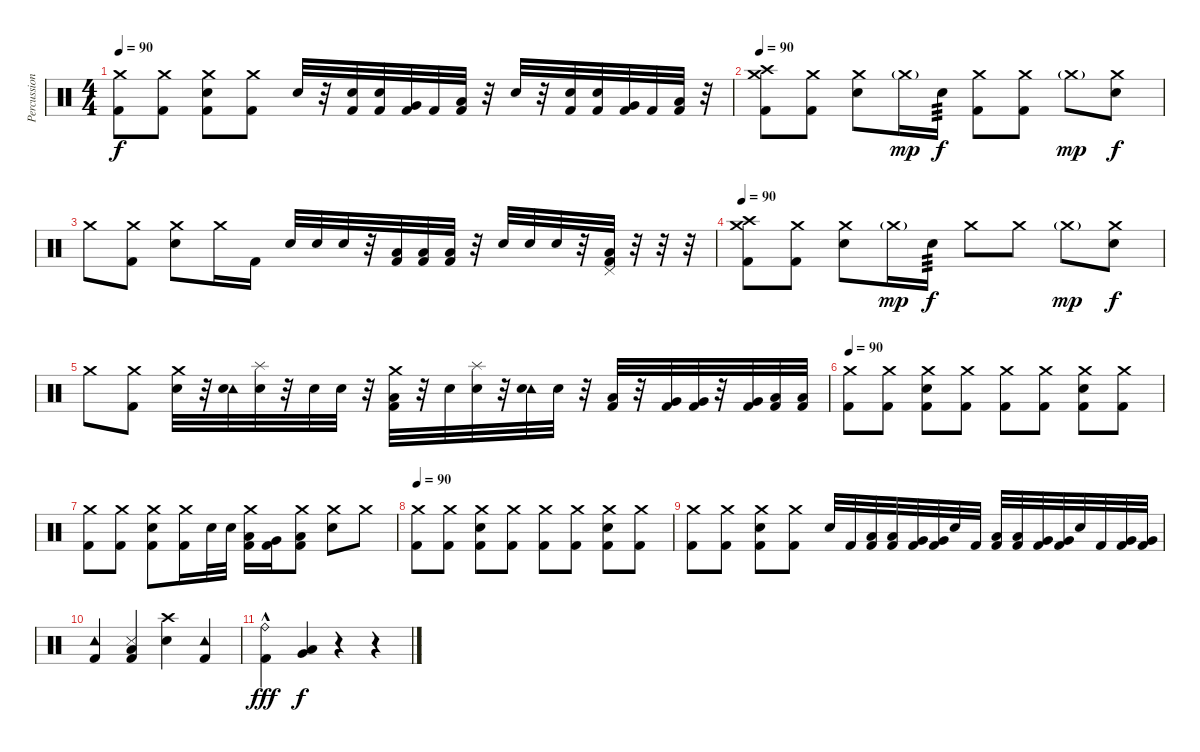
\track ("Percussions" "Percussion") {instrument percussion}
\staff {score}
\articulation defaults
\ts (4 4)
\tempo 90
\clef neutral
\ks c
("Crash medium (hit)" "Kick (hit) 2").8{dy f} ("Crash medium (hit)" "Kick (hit) 2").8 ("Crash medium (hit)" "Electric Snare (hit)" "Kick (hit) 2").8 ("Crash medium (hit)" "Kick (hit) 2").8 "Electric Snare (hit)".32 r.32 ("Electric Snare (hit)" "Kick (hit) 2").32 ("Electric Snare (hit)" "Kick (hit) 2").32 ("Very Low Tom (hit)" "Kick (hit) 2").32 "Kick (hit) 2".32 ("Low Floor Tom (hit)" "Kick (hit) 2").32 r.32 "Electric Snare (hit)".32 r.32 ("Electric Snare (hit)" "Kick (hit) 2").32 ("Electric Snare (hit)" "Kick (hit) 2").32 ("Very Low Tom (hit)" "Kick (hit) 2").32 "Kick (hit) 2".32 ("Low Floor Tom (hit)" "Kick (hit) 2").32 r.32 |
\tempo 90
("Crash medium (hit)" "Crash high (hit)" "Kick (hit) 2").8 ("Crash medium (hit)" "Kick (hit) 2").8 ("Crash medium (hit)" "Electric Snare (hit)").8 "Crash medium (hit)"{g}.16{dy mp} "Electric Snare (hit)".16{tp 3 dy f} ("Crash medium (hit)" "Kick (hit) 2").8 ("Crash medium (hit)" "Kick (hit) 2").8 "Crash medium (hit)"{g}.8{dy mp} ("Crash medium (hit)" "Electric Snare (hit)").8{dy f} |
"Crash medium (hit)".8 ("Crash medium (hit)" "Kick (hit) 2").8 ("Crash medium (hit)" "Electric Snare (hit)").8 "Crash medium (hit)".16 "Kick (hit) 2".16 "Electric Snare (hit)".32 "Electric Snare (hit)".32 "Electric Snare (hit)".32 r.32 ("Low Floor Tom (hit)" "Kick (hit) 2").32 ("Low Floor Tom (hit)" "Kick (hit) 2").32 ("Low Floor Tom (hit)" "Kick (hit) 2").32 r.32 "Electric Snare (hit)".32 "Electric Snare (hit)".32 "Electric Snare (hit)".32 r.32 ("Pedal Hi-Hat (hit)" "Low Floor Tom (hit)" "Kick (hit) 2").32 r.32 r.32 r.32 |
\tempo 90
("Crash medium (hit)" "Crash high (hit)" "Kick (hit) 2").8 ("Crash medium (hit)" "Kick (hit) 2").8 ("Crash medium (hit)" "Electric Snare (hit)").8 "Crash medium (hit)"{g}.16{dy mp} "Electric Snare (hit)".16{tp 3 dy f} "Crash medium (hit)".8 "Crash medium (hit)".8 "Crash medium (hit)"{g}.8{dy mp} ("Crash medium (hit)" "Electric Snare (hit)").8{dy f} |
"Crash medium (hit)".8 ("Crash medium (hit)" "Kick (hit) 2").8 ("Crash medium (hit)" "Electric Snare (hit)").32 r.32 ("Tambourine (hit)" "Electric Snare (hit)").32 ("Splash (hit)" "Electric Snare (hit)").32 r.32 "Electric Snare (hit)".32 "Electric Snare (hit)".32 r.32 ("Crash medium (hit)" "Low Floor Tom (hit)" "Kick (hit) 2").32 r.32 "Electric Snare (hit)".32 ("Splash (hit)" "Electric Snare (hit)").32 r.32 ("Tambourine (hit)" "Electric Snare (hit)").32 "Electric Snare (hit)".32 r.32 ("Low Tom (hit)" "Kick (hit) 2").32 r.32 ("Very Low Tom (hit)" "Kick (hit) 2").32 ("Very Low Tom (hit)" "Kick (hit) 2").32 r.32 ("Very Low Tom (hit)" "Kick (hit) 2").32 ("Low Floor Tom (hit)" "Kick (hit) 2").32 ("Low Floor Tom (hit)" "Kick (hit) 2").32 |
\tempo 90
("Crash medium (hit)" "Kick (hit) 2").8 ("Crash medium (hit)" "Kick (hit) 2").8 ("Crash medium (hit)" "Electric Snare (hit)" "Kick (hit) 2").8 ("Crash medium (hit)" "Kick (hit) 2").8 ("Crash medium (hit)" "Kick (hit) 2").8 ("Crash medium (hit)" "Kick (hit) 2").8 ("Crash medium (hit)" "Electric Snare (hit)" "Kick (hit) 2").8 ("Crash medium (hit)" "Kick (hit) 2").8 |
("Crash medium (hit)" "Kick (hit) 2").8 ("Crash medium (hit)" "Kick (hit) 2").8 ("Crash medium (hit)" "Electric Snare (hit)" "Kick (hit) 2").8 ("Crash medium (hit)" "Kick (hit) 2").16 "Electric Snare (hit)".32 "Electric Snare (hit)".32 ("Crash medium (hit)" "Low Tom (hit)" "Kick (hit) 2").16 ("Very Low Tom (hit)" "Kick (hit) 2").16 ("Crash medium (hit)" "Low Floor Tom (hit)" "Kick (hit) 2").8 ("Crash medium (hit)" "Electric Snare (hit)").8 "Crash medium (hit)".8 |
\tempo 90
("Crash medium (hit)" "Kick (hit) 2").8 ("Crash medium (hit)" "Kick (hit) 2").8 ("Crash medium (hit)" "Electric Snare (hit)" "Kick (hit) 2").8 ("Crash medium (hit)" "Kick (hit) 2").8 ("Crash medium (hit)" "Kick (hit) 2").8 ("Crash medium (hit)" "Kick (hit) 2").8 ("Crash medium (hit)" "Electric Snare (hit)" "Kick (hit) 2").8 ("Crash medium (hit)" "Kick (hit) 2").8 |
("Crash medium (hit)" "Kick (hit) 2").8 ("Crash medium (hit)" "Kick (hit) 2").8 ("Crash medium (hit)" "Electric Snare (hit)" "Kick (hit) 2").8 ("Crash medium (hit)" "Kick (hit) 2").8 "Electric Snare (hit)".32 "Kick (hit) 2".32 ("Low Tom (hit)" "Kick (hit) 2").32 ("Low Tom (hit)" "Kick (hit) 2").32 ("Very Low Tom (hit)" "Kick (hit) 2").32 ("Very Low Tom (hit)" "Kick (hit) 2").32 "Electric Snare (hit)".32 "Kick (hit) 2".32 ("Low Tom (hit)" "Kick (hit) 2").32 ("Low Tom (hit)" "Kick (hit) 2").32 ("Very Low Tom (hit)" "Kick (hit) 2").32 ("Very Low Tom (hit)" "Kick (hit) 2").32 "Electric Snare (hit)".32 "Kick (hit) 2".32 ("Very Low Tom (hit)" "Kick (hit) 2").32 ("Very Low Tom (hit)" "Kick (hit) 2").32 |
("Tambourine (hit)" "Kick (hit) 2").4 ("Snare (side stick) 3" "Low Floor Tom (hit)" "Kick (hit) 2").4 ("Crash high (hit)" "Electric Snare (hit)").4 ("Tambourine (hit)" "Kick (hit) 2").4 |
("Ride (bell)"{hac} "Kick (hit) 2").4{dy fff} ("Very Low Tom (hit)" "Low Floor Tom (hit)").4{dy f} r.4 r.4
